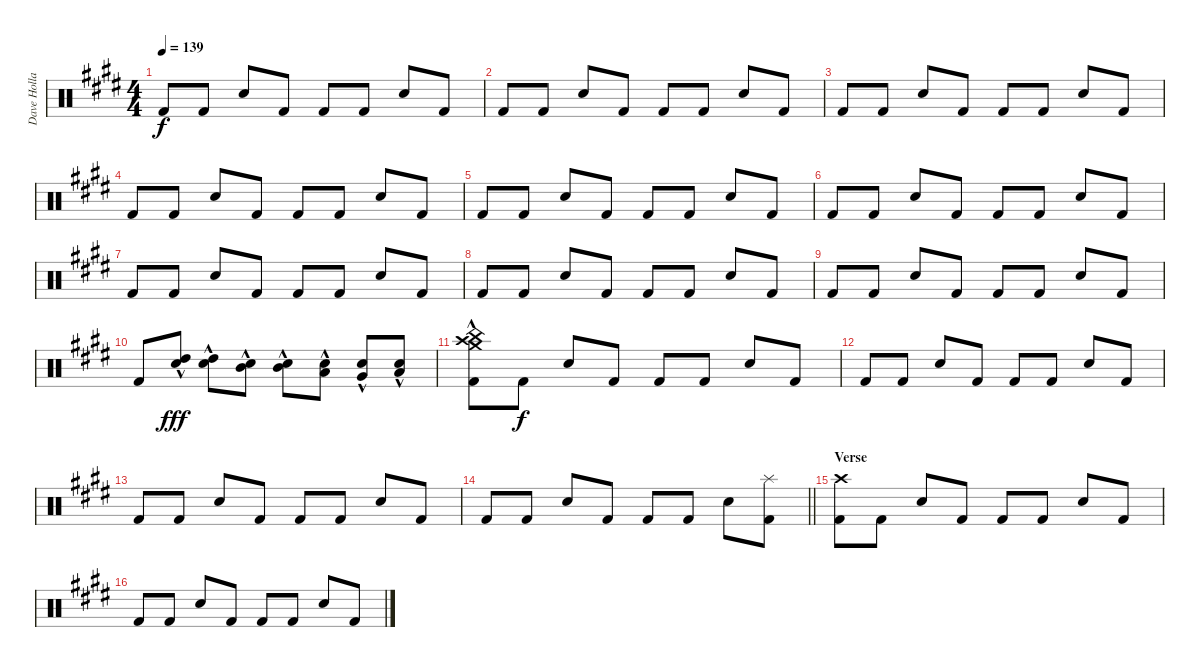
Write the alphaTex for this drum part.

\track ("Dave Holland" "Dave Holla") {instrument percussion}
\staff {score}
\articulation defaults
\ts (4 4)
\tempo 139
\clef neutral
\ks c#minor "Kick (hit) 2".8{dy f} "Kick (hit) 2".8 "Snare (hit) 2".8 "Kick (hit) 2".8 "Kick (hit) 2".8 "Kick (hit) 2".8 "Snare (hit) 2".8 "Kick (hit) 2".8
|
"Kick (hit) 2".8 "Kick (hit) 2".8 "Snare (hit) 2".8 "Kick (hit) 2".8 "Kick (hit) 2".8 "Kick (hit) 2".8 "Snare (hit) 2".8 "Kick (hit) 2".8 |
"Kick (hit) 2".8 "Kick (hit) 2".8 "Snare (hit) 2".8 "Kick (hit) 2".8 "Kick (hit) 2".8 "Kick (hit) 2".8 "Snare (hit) 2".8 "Kick (hit) 2".8 |
"Kick (hit) 2".8 "Kick (hit) 2".8 "Snare (hit) 2".8 "Kick (hit) 2".8 "Kick (hit) 2".8 "Kick (hit) 2".8 "Snare (hit) 2".8 "Kick (hit) 2".8 |
"Kick (hit) 2".8 "Kick (hit) 2".8 "Snare (hit) 2".8 "Kick (hit) 2".8 "Kick (hit) 2".8 "Kick (hit) 2".8 "Snare (hit) 2".8 "Kick (hit) 2".8 |
"Kick (hit) 2".8 "Kick (hit) 2".8 "Snare (hit) 2".8 "Kick (hit) 2".8 "Kick (hit) 2".8 "Kick (hit) 2".8 "Snare (hit) 2".8 "Kick (hit) 2".8 |
"Kick (hit) 2".8 "Kick (hit) 2".8 "Snare (hit) 2".8 "Kick (hit) 2".8 "Kick (hit) 2".8 "Kick (hit) 2".8 "Snare (hit) 2".8 "Kick (hit) 2".8 |
"Kick (hit) 2".8 "Kick (hit) 2".8 "Snare (hit) 2".8 "Kick (hit) 2".8 "Kick (hit) 2".8 "Kick (hit) 2".8 "Snare (hit) 2".8 "Kick (hit) 2".8 |
"Kick (hit) 2".8 "Kick (hit) 2".8 "Snare (hit) 2".8 "Kick (hit) 2".8 "Kick (hit) 2".8 "Kick (hit) 2".8 "Snare (hit) 2".8 "Kick (hit) 2".8 |
"Kick (hit) 2".8{balance 0} ("High Tom (hit)"{hac} "Snare (hit) 2").8{dy fff} ("High Tom (hit)"{hac} "Snare (hit) 2").8{balance 16} ("Mid Tom (hit)"{hac} "Snare (hit) 2").8 ("Mid Tom (hit)"{hac} "Snare (hit) 2").8{balance 0} ("Low Tom (hit)"{hac} "Snare (hit) 2").8 ("Very Low Tom (hit)"{hac} "Snare (hit) 2").8{balance 16} ("Low Floor Tom (hit)"{hac} "Snare (hit) 2").8 |
("Crash medium (hit)"{hac} "Crash high (hit)"{hac} "China (hit)"{hac} "Kick (hit) 2"{hac}).8{balance 8} "Kick (hit) 2".8{dy f} "Snare (hit) 2".8 "Kick (hit) 2".8 "Kick (hit) 2".8 "Kick (hit) 2".8 "Snare (hit) 2".8 "Kick (hit) 2".8 |
"Kick (hit) 2".8 "Kick (hit) 2".8 "Snare (hit) 2".8 "Kick (hit) 2".8 "Kick (hit) 2".8 "Kick (hit) 2".8 "Snare (hit) 2".8 "Kick (hit) 2".8 |
"Kick (hit) 2".8 "Kick (hit) 2".8 "Snare (hit) 2".8 "Kick (hit) 2".8 "Kick (hit) 2".8 "Kick (hit) 2".8 "Snare (hit) 2".8 "Kick (hit) 2".8 |
\barLineRight lightlight "Kick (hit) 2".8 "Kick (hit) 2".8 "Snare (hit) 2".8 "Kick (hit) 2".8 "Kick (hit) 2".8 "Kick (hit) 2".8 "Snare (hit) 2".8
("Splash (hit)" "Kick (hit) 2").8 |
\section ("" "Verse")
("Crash high (hit)" "Kick (hit) 2").8 "Kick (hit) 2".8 "Snare (hit) 2".8 "Kick (hit) 2".8 "Kick (hit) 2".8 "Kick (hit) 2".8 "Snare (hit) 2".8 "Kick (hit) 2".8 |
"Kick (hit) 2".8 "Kick (hit) 2".8 "Snare (hit) 2".8 "Kick (hit) 2".8 "Kick (hit) 2".8 "Kick (hit) 2".8 "Snare (hit) 2".8 "Kick (hit) 2".8
